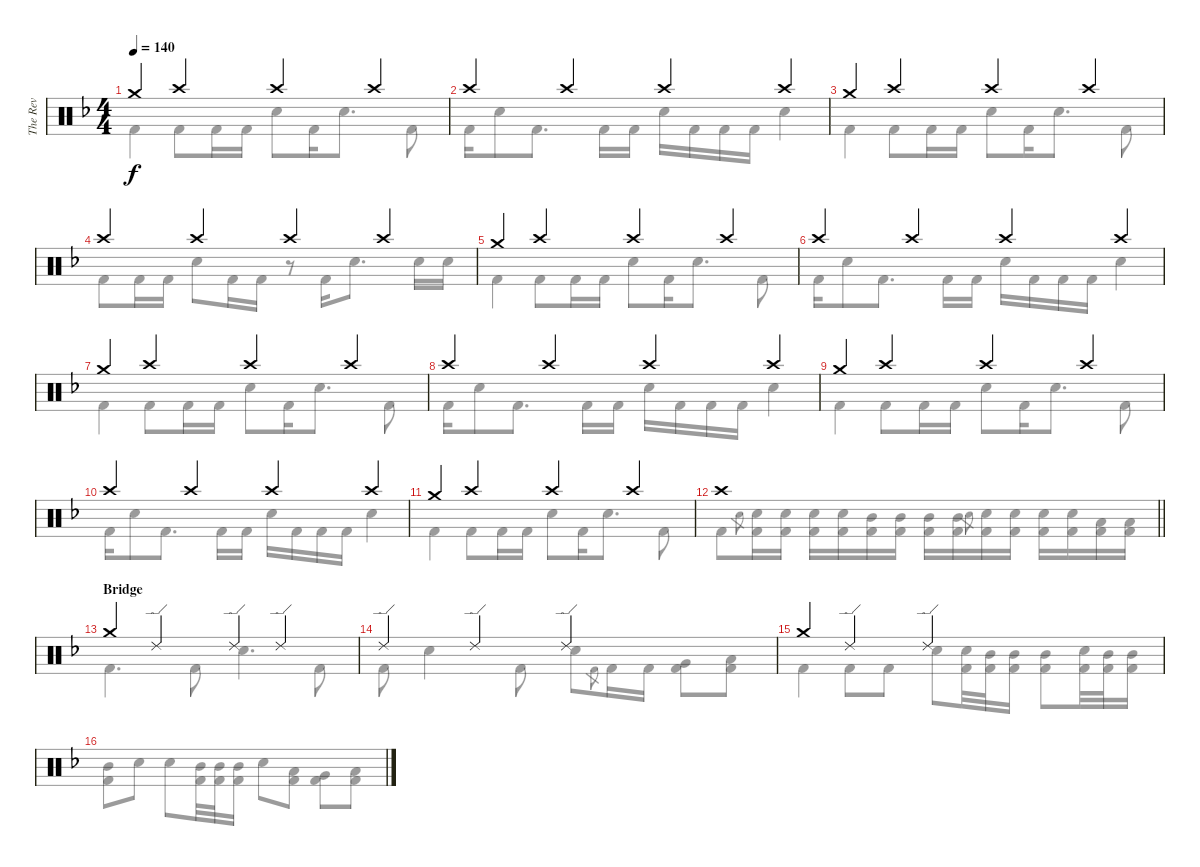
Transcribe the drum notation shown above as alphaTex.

\track ("The Rev" "The Rev") {instrument percussion}
\staff {score}
\articulation defaults
\voice
\ts (4 4)
\tempo 140
\clef neutral
\ks dminor "Crash medium (hit)".4{dy f} "Crash high (hit)".4 "Crash high (hit)".4 "Crash high (hit)".4
|
"Crash high (hit)".4 "Crash high (hit)".4 "Crash high (hit)".4 "Crash high (hit)".4 |
"Crash medium (hit)".4 "Crash high (hit)".4 "Crash high (hit)".4 "Crash high (hit)".4 |
"Crash high (hit)".4 "Crash high (hit)".4 "Crash high (hit)".4 "Crash high (hit)".4 |
"Crash medium (hit)".4 "Crash high (hit)".4 "Crash high (hit)".4 "Crash high (hit)".4 |
"Crash high (hit)".4 "Crash high (hit)".4 "Crash high (hit)".4 "Crash high (hit)".4 |
"Crash medium (hit)".4 "Crash high (hit)".4 "Crash high (hit)".4 "Crash high (hit)".4 |
"Crash high (hit)".4 "Crash high (hit)".4 "Crash high (hit)".4 "Crash high (hit)".4 |
"Crash medium (hit)".4 "Crash high (hit)".4 "Crash high (hit)".4 "Crash high (hit)".4 |
"Crash high (hit)".4 "Crash high (hit)".4 "Crash high (hit)".4 "Crash high (hit)".4 |
"Crash medium (hit)".4 "Crash high (hit)".4 "Crash high (hit)".4 "Crash high (hit)".4 |
\barLineRight lightlight "Crash high (hit)".1
|
\section ("" "Bridge")
"Crash medium (hit)".4 "Ride (edge) 2".4 "Ride (edge) 2".4 "Ride (edge) 2".4 |
"Ride (edge) 2".4 "Ride (edge) 2".4 "Ride (edge) 2".2 |
"Crash medium (hit)".4 "Ride (edge) 2".4 "Ride (edge) 2".2 |
\voice
\clef neutral
\ottava regular
\simile none
\ks dminor "Kick (hit) 2".4{dy f} "Kick (hit) 2".8 "Kick (hit) 2".16 "Kick (hit) 2".16 "Electric Snare (hit)".8 "Kick (hit) 2".16 "Electric Snare (hit)".8{d} "Kick (hit) 2".8
|
"Kick (hit) 2".16 "Electric Snare (hit)".8 "Kick (hit) 2".8{d} "Kick (hit) 2".16 "Kick (hit) 2".16 "Electric Snare (hit)".16 "Kick (hit) 2".16 "Kick (hit) 2".16 "Kick (hit) 2".16 "Electric Snare (hit)".4 |
"Kick (hit) 2".4 "Kick (hit) 2".8 "Kick (hit) 2".16 "Kick (hit) 2".16 "Electric Snare (hit)".8 "Kick (hit) 2".16 "Electric Snare (hit)".8{d} "Kick (hit) 2".8 |
"Kick (hit) 2".8 "Kick (hit) 2".16 "Kick (hit) 2".16 "Electric Snare (hit)".8 "Kick (hit) 2".16 "Kick (hit) 2".16 r.8 "Kick (hit) 2".16 "Electric Snare (hit)".8{d} "Electric Snare (hit)".16 "Electric Snare (hit)".16 |
"Kick (hit) 2".4 "Kick (hit) 2".8 "Kick (hit) 2".16 "Kick (hit) 2".16 "Electric Snare (hit)".8 "Kick (hit) 2".16 "Electric Snare (hit)".8{d} "Kick (hit) 2".8 |
"Kick (hit) 2".16 "Electric Snare (hit)".8 "Kick (hit) 2".8{d} "Kick (hit) 2".16 "Kick (hit) 2".16 "Electric Snare (hit)".16 "Kick (hit) 2".16 "Kick (hit) 2".16 "Kick (hit) 2".16 "Electric Snare (hit)".4 |
"Kick (hit) 2".4 "Kick (hit) 2".8 "Kick (hit) 2".16 "Kick (hit) 2".16 "Electric Snare (hit)".8 "Kick (hit) 2".16 "Electric Snare (hit)".8{d} "Kick (hit) 2".8 |
"Kick (hit) 2".16 "Electric Snare (hit)".8 "Kick (hit) 2".8{d} "Kick (hit) 2".16 "Kick (hit) 2".16 "Electric Snare (hit)".16 "Kick (hit) 2".16 "Kick (hit) 2".16 "Kick (hit) 2".16 "Electric Snare (hit)".4 |
"Kick (hit) 2".4 "Kick (hit) 2".8 "Kick (hit) 2".16 "Kick (hit) 2".16 "Electric Snare (hit)".8 "Kick (hit) 2".16 "Electric Snare (hit)".8{d} "Kick (hit) 2".8 |
"Kick (hit) 2".16 "Electric Snare (hit)".8 "Kick (hit) 2".8{d} "Kick (hit) 2".16 "Kick (hit) 2".16 "Electric Snare (hit)".16 "Kick (hit) 2".16 "Kick (hit) 2".16 "Kick (hit) 2".16 "Electric Snare (hit)".4 |
"Kick (hit) 2".4 "Kick (hit) 2".8 "Kick (hit) 2".16 "Kick (hit) 2".16 "Electric Snare (hit)".8 "Kick (hit) 2".16 "Electric Snare (hit)".8{d} "Kick (hit) 2".8 |
\barLineRight lightlight "Kick (hit) 2".8 "Electric Snare (hit)".8{gr}
("Electric Snare (hit)" "Kick (hit) 2").16 ("Electric Snare (hit)" "Kick (hit) 2").16 ("Electric Snare (hit)" "Kick (hit) 2").16 ("Electric Snare (hit)" "Kick (hit) 2").16 ("Mid Tom (hit)" "Kick (hit) 2").16 ("Mid Tom (hit)" "Kick (hit) 2").16 ("Mid Tom (hit)" "Kick (hit) 2").16 ("Mid Tom (hit)" "Kick (hit) 2").16 "Electric Snare (hit)".8{gr} ("Electric Snare (hit)" "Kick (hit) 2").16 ("Electric Snare (hit)" "Kick (hit) 2").16 ("Electric Snare (hit)" "Kick (hit) 2").16 ("Electric Snare (hit)" "Kick (hit) 2").16 ("Low Tom (hit)" "Kick (hit) 2").16 ("Low Tom (hit)" "Kick (hit) 2").16 |
"Kick (hit) 2".4{d} "Kick (hit) 2".8 "Electric Snare (hit)".4{d} "Kick (hit) 2".8 |
"Kick (hit) 2".8 "Electric Snare (hit)".4 "Kick (hit) 2".8 "Electric Snare (hit)".8 "Kick (hit) 2".8{gr} "Kick (hit) 2".16 "Kick (hit) 2".16 ("Very Low Tom (hit)" "Kick (hit) 2").8 ("Low Floor Tom (hit)" "Kick (hit) 2").8 |
"Kick (hit) 2".4 "Kick (hit) 2".8 "Kick (hit) 2".8 "Electric Snare (hit)".8 ("Electric Snare (hit)" "Kick (hit) 2").32 ("Mid Tom (hit)" "Kick (hit) 2").32 ("Mid Tom (hit)" "Kick (hit) 2").16 ("Mid Tom (hit)" "Kick (hit) 2").8 ("Electric Snare (hit)" "Kick (hit) 2").32 ("Mid Tom (hit)" "Kick (hit) 2").32 ("Mid Tom (hit)" "Kick (hit) 2").16 |
("Mid Tom (hit)" "Kick (hit) 2").8 "Electric Snare (hit)".8 "Electric Snare (hit)".8 ("Mid Tom (hit)" "Kick (hit) 2").32 ("Mid Tom (hit)" "Kick (hit) 2").32 ("Mid Tom (hit)" "Kick (hit) 2").16 "Electric Snare (hit)".8 ("Low Tom (hit)" "Kick (hit) 2").8 ("Very Low Tom (hit)" "Kick (hit) 2").8 ("Low Floor Tom (hit)" "Kick (hit) 2").8
